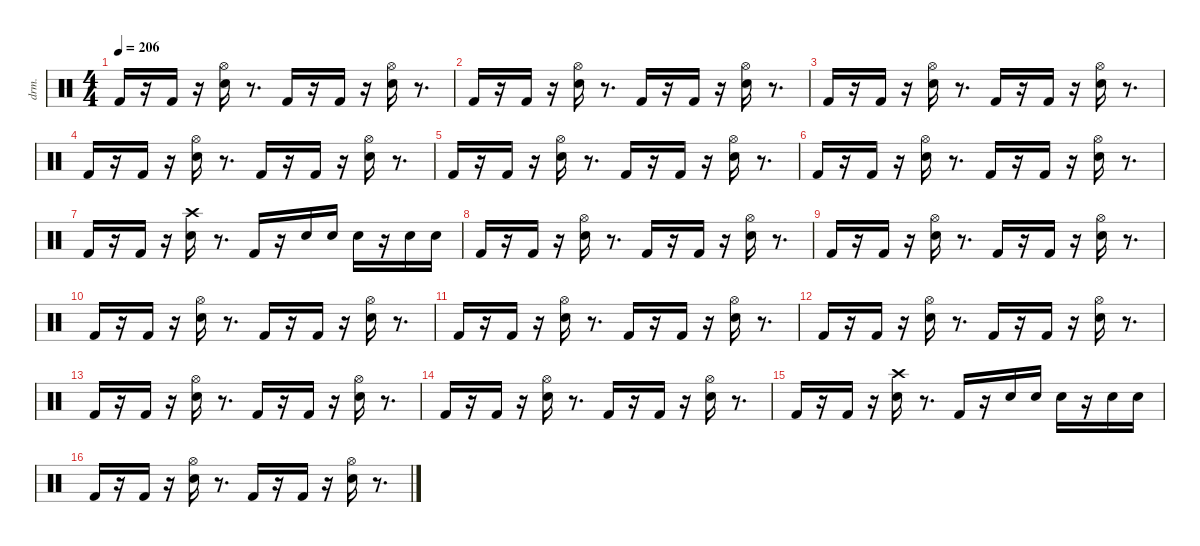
\defaultSystemsLayout 4
\hideDynamics
\bracketExtendMode nobrackets
\otherSystemsTrackNameOrientation horizontal
\track ("EZdrummer 3" "drm.") {instrument percussion}
\staff {score}
\articulation defaults
\ts (4 4)
\tempo 206
\clef neutral
\ks aminor "Kick (hit) 2".16{dy mf beam Up}
r.16{beam Up} "Kick (hit) 2".16{dy ff beam Up} r.16{beam Up} ("Snare (hit) 2" "Hi-Hat (open)"{acc #}).16{beam Down} r.8{d beam Down} "Kick (hit) 2".16{dy mf beam Up} r.16{beam Up} "Kick (hit) 2".16{dy ff beam Up} r.16{beam Up} ("Snare (hit) 2" "Hi-Hat (open)"{acc #}).16{beam Down} r.8{d beam Down} |
"Kick (hit) 2".16{dy mf beam Up} r.16{beam Up} "Kick (hit) 2".16{dy ff beam Up} r.16{beam Up} ("Snare (hit) 2" "Hi-Hat (open)"{acc #}).16{beam Down} r.8{d beam Down} "Kick (hit) 2".16{dy mf beam Up} r.16{beam Up} "Kick (hit) 2".16{dy ff beam Up} r.16{beam Up} ("Snare (hit) 2" "Hi-Hat (open)"{acc #}).16{beam Down} r.8{d beam Down} |
"Kick (hit) 2".16{dy mf beam Up} r.16{beam Up} "Kick (hit) 2".16{dy ff beam Up} r.16{beam Up} ("Snare (hit) 2" "Hi-Hat (open)"{acc #}).16{beam Down} r.8{d beam Down} "Kick (hit) 2".16{dy mf beam Up} r.16{beam Up} "Kick (hit) 2".16{dy ff beam Up} r.16{beam Up} ("Snare (hit) 2" "Hi-Hat (open)"{acc #}).16{beam Down} r.8{d beam Down} |
"Kick (hit) 2".16{dy mf beam Up} r.16{beam Up} "Kick (hit) 2".16{dy ff beam Up} r.16{beam Up} ("Snare (hit) 2" "Hi-Hat (open)"{acc #}).16{beam Down} r.8{d beam Down} "Kick (hit) 2".16{dy mf beam Up} r.16{beam Up} "Kick (hit) 2".16{dy ff beam Up} r.16{beam Up} ("Snare (hit) 2" "Hi-Hat (open)"{acc #}).16{beam Down} r.8{d beam Down} |
"Kick (hit) 2".16{dy mf beam Up} r.16{beam Up} "Kick (hit) 2".16{dy ff beam Up} r.16{beam Up} ("Snare (hit) 2" "Hi-Hat (open)"{acc #}).16{beam Down} r.8{d beam Down} "Kick (hit) 2".16{dy mf beam Up} r.16{beam Up} "Kick (hit) 2".16{dy ff beam Up} r.16{beam Up} ("Snare (hit) 2" "Hi-Hat (open)"{acc #}).16{beam Down} r.8{d beam Down} |
"Kick (hit) 2".16{dy mf beam Up} r.16{beam Up} "Kick (hit) 2".16{dy ff beam Up} r.16{beam Up} ("Snare (hit) 2" "Hi-Hat (open)"{acc #}).16{beam Down} r.8{d beam Down} "Kick (hit) 2".16{dy mf beam Up} r.16{beam Up} "Kick (hit) 2".16{dy ff beam Up} r.16{beam Up} ("Snare (hit) 2" "Hi-Hat (open)"{acc #}).16{beam Down} r.8{d beam Down} |
"Kick (hit) 2".16{dy mf beam Up} r.16{beam Up} "Kick (hit) 2".16{dy ff beam Up} r.16{beam Up} ("Snare (hit) 2" "Crash high (hit)"{acc #}).16{dy fff beam Down} r.8{d beam Down} "Kick (hit) 2".16{dy mf beam Up} r.16{beam Up} "Snare (hit) 2".16{beam Up} "Snare (hit) 2".16{dy p beam Up} "Snare (hit) 2".16{dy ff beam Down} r.16{beam Down} "Snare (hit) 2".16{dy mf beam Down} "Snare (hit) 2".16{dy p beam Down} |
"Kick (hit) 2".16{dy mf beam Up} r.16{beam Up} "Kick (hit) 2".16{dy ff beam Up} r.16{beam Up} ("Snare (hit) 2" "Hi-Hat (open)"{acc #}).16{beam Down} r.8{d beam Down} "Kick (hit) 2".16{dy mf beam Up} r.16{beam Up} "Kick (hit) 2".16{dy ff beam Up} r.16{beam Up} ("Snare (hit) 2" "Hi-Hat (open)"{acc #}).16{beam Down} r.8{d beam Down} |
"Kick (hit) 2".16{dy mf beam Up} r.16{beam Up} "Kick (hit) 2".16{dy ff beam Up} r.16{beam Up} ("Snare (hit) 2" "Hi-Hat (open)"{acc #}).16{beam Down} r.8{d beam Down} "Kick (hit) 2".16{dy mf beam Up} r.16{beam Up} "Kick (hit) 2".16{dy ff beam Up} r.16{beam Up} ("Snare (hit) 2" "Hi-Hat (open)"{acc #}).16{beam Down} r.8{d beam Down} |
"Kick (hit) 2".16{dy mf beam Up} r.16{beam Up} "Kick (hit) 2".16{dy ff beam Up} r.16{beam Up} ("Snare (hit) 2" "Hi-Hat (open)"{acc #}).16{beam Down} r.8{d beam Down} "Kick (hit) 2".16{dy mf beam Up} r.16{beam Up} "Kick (hit) 2".16{dy ff beam Up} r.16{beam Up} ("Snare (hit) 2" "Hi-Hat (open)"{acc #}).16{beam Down} r.8{d beam Down} |
"Kick (hit) 2".16{dy mf beam Up} r.16{beam Up} "Kick (hit) 2".16{dy ff beam Up} r.16{beam Up} ("Snare (hit) 2" "Hi-Hat (open)"{acc #}).16{beam Down} r.8{d beam Down} "Kick (hit) 2".16{dy mf beam Up} r.16{beam Up} "Kick (hit) 2".16{dy ff beam Up} r.16{beam Up} ("Snare (hit) 2" "Hi-Hat (open)"{acc #}).16{beam Down} r.8{d beam Down} |
"Kick (hit) 2".16{dy mf beam Up} r.16{beam Up} "Kick (hit) 2".16{dy ff beam Up} r.16{beam Up} ("Snare (hit) 2" "Hi-Hat (open)"{acc #}).16{beam Down} r.8{d beam Down} "Kick (hit) 2".16{dy mf beam Up} r.16{beam Up} "Kick (hit) 2".16{dy ff beam Up} r.16{beam Up} ("Snare (hit) 2" "Hi-Hat (open)"{acc #}).16{beam Down} r.8{d beam Down} |
"Kick (hit) 2".16{dy mf beam Up} r.16{beam Up} "Kick (hit) 2".16{dy ff beam Up} r.16{beam Up} ("Snare (hit) 2" "Hi-Hat (open)"{acc #}).16{beam Down} r.8{d beam Down} "Kick (hit) 2".16{dy mf beam Up} r.16{beam Up} "Kick (hit) 2".16{dy ff beam Up} r.16{beam Up} ("Snare (hit) 2" "Hi-Hat (open)"{acc #}).16{beam Down} r.8{d beam Down} |
"Kick (hit) 2".16{dy mf beam Up} r.16{beam Up} "Kick (hit) 2".16{dy ff beam Up} r.16{beam Up} ("Snare (hit) 2" "Hi-Hat (open)"{acc #}).16{beam Down} r.8{d beam Down} "Kick (hit) 2".16{dy mf beam Up} r.16{beam Up} "Kick (hit) 2".16{dy ff beam Up} r.16{beam Up} ("Snare (hit) 2" "Hi-Hat (open)"{acc #}).16{beam Down} r.8{d beam Down} |
"Kick (hit) 2".16{dy mf beam Up} r.16{beam Up} "Kick (hit) 2".16{dy ff beam Up} r.16{beam Up} ("Snare (hit) 2" "Crash high (hit)"{acc #}).16{dy fff beam Down} r.8{d beam Down} "Kick (hit) 2".16{dy mf beam Up} r.16{beam Up} "Snare (hit) 2".16{beam Up} "Snare (hit) 2".16{dy p beam Up} "Snare (hit) 2".16{dy ff beam Down} r.16{beam Down} "Snare (hit) 2".16{dy mf beam Down} "Snare (hit) 2".16{dy p beam Down} |
"Kick (hit) 2".16{dy mf beam Up} r.16{beam Up} "Kick (hit) 2".16{dy ff beam Up} r.16{beam Up} ("Snare (hit) 2" "Hi-Hat (open)"{acc #}).16{beam Down} r.8{d beam Down} "Kick (hit) 2".16{dy mf beam Up} r.16{beam Up} "Kick (hit) 2".16{dy ff beam Up} r.16{beam Up} ("Snare (hit) 2" "Hi-Hat (open)"{acc #}).16{beam Down} r.8{d beam Down}
